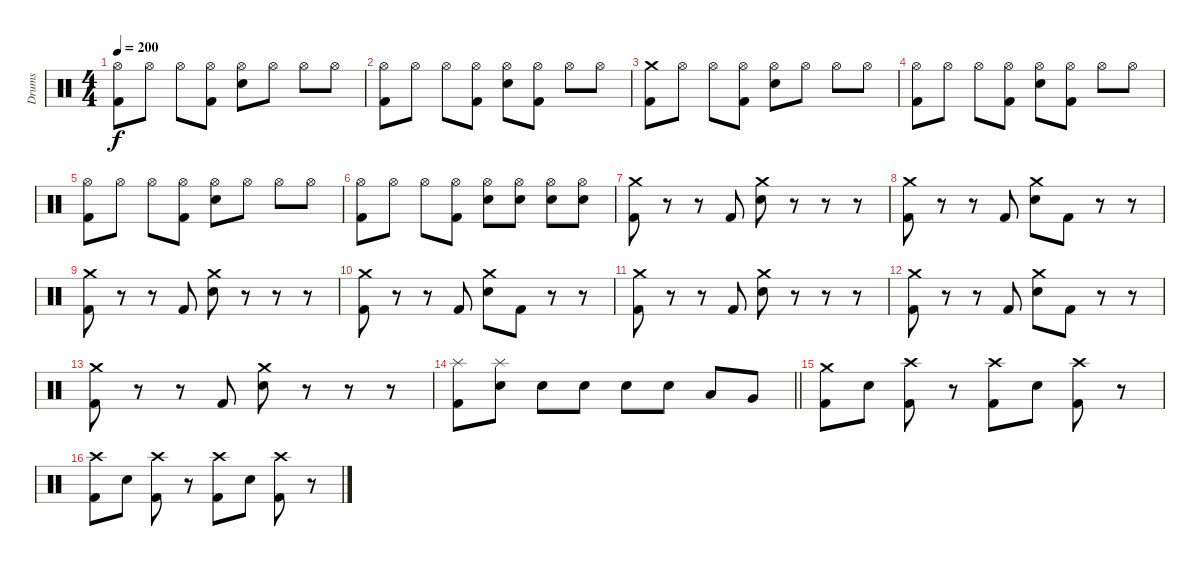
\track ("Drums" "Drums") {instrument percussion}
\staff {score}
\articulation defaults
\ts (4 4)
\tempo 200
\clef neutral
\ks c
("Hi-Hat (open)" "Kick (hit) 2").8{dy f} "Hi-Hat (open)".8 "Hi-Hat (open)".8 ("Hi-Hat (open)" "Kick (hit) 2").8 ("Hi-Hat (open)" "Electric Snare (hit)").8 "Hi-Hat (open)".8 "Hi-Hat (open)".8 "Hi-Hat (open)".8 |
("Hi-Hat (open)" "Kick (hit) 2").8 "Hi-Hat (open)".8 "Hi-Hat (open)".8 ("Hi-Hat (open)" "Kick (hit) 2").8 ("Hi-Hat (open)" "Electric Snare (hit)").8 ("Hi-Hat (open)" "Kick (hit) 2").8 "Hi-Hat (open)".8 "Hi-Hat (open)".8 |
("Crash medium (hit)" "Kick (hit) 2").8 "Hi-Hat (open)".8 "Hi-Hat (open)".8 ("Hi-Hat (open)" "Kick (hit) 2").8 ("Hi-Hat (open)" "Electric Snare (hit)").8 "Hi-Hat (open)".8 "Hi-Hat (open)".8 "Hi-Hat (open)".8 |
("Hi-Hat (open)" "Kick (hit) 2").8 "Hi-Hat (open)".8 "Hi-Hat (open)".8 ("Hi-Hat (open)" "Kick (hit) 2").8 ("Hi-Hat (open)" "Electric Snare (hit)").8 ("Hi-Hat (open)" "Kick (hit) 2").8 "Hi-Hat (open)".8 "Hi-Hat (open)".8 |
("Hi-Hat (open)" "Kick (hit) 2").8 "Hi-Hat (open)".8 "Hi-Hat (open)".8 ("Hi-Hat (open)" "Kick (hit) 2").8 ("Hi-Hat (open)" "Electric Snare (hit)").8 "Hi-Hat (open)".8 "Hi-Hat (open)".8 "Hi-Hat (open)".8 |
("Hi-Hat (open)" "Kick (hit) 2").8 "Hi-Hat (open)".8 "Hi-Hat (open)".8 ("Hi-Hat (open)" "Kick (hit) 2").8 ("Hi-Hat (open)" "Electric Snare (hit)").8 ("Hi-Hat (open)" "Electric Snare (hit)").8 ("Hi-Hat (open)" "Electric Snare (hit)").8 ("Hi-Hat (open)" "Electric Snare (hit)").8 |
("Crash medium (hit)" "Kick (hit) 2").8 r.8 r.8 "Kick (hit) 2".8 ("Crash medium (hit)" "Electric Snare (hit)").8 r.8 r.8 r.8 |
("Crash medium (hit)" "Kick (hit) 2").8 r.8 r.8 "Kick (hit) 2".8 ("Crash medium (hit)" "Electric Snare (hit)").8 "Kick (hit) 2".8 r.8 r.8 |
("Crash medium (hit)" "Kick (hit) 2").8 r.8 r.8 "Kick (hit) 2".8 ("Crash medium (hit)" "Electric Snare (hit)").8 r.8 r.8 r.8 |
("Crash medium (hit)" "Kick (hit) 2").8 r.8 r.8 "Kick (hit) 2".8 ("Crash medium (hit)" "Electric Snare (hit)").8 "Kick (hit) 2".8 r.8 r.8 |
("Crash medium (hit)" "Kick (hit) 2").8 r.8 r.8 "Kick (hit) 2".8 ("Crash medium (hit)" "Electric Snare (hit)").8 r.8 r.8 r.8 |
("Crash medium (hit)" "Kick (hit) 2").8 r.8 r.8 "Kick (hit) 2".8 ("Crash medium (hit)" "Electric Snare (hit)").8 "Kick (hit) 2".8 r.8 r.8 |
("Crash medium (hit)" "Kick (hit) 2").8 r.8 r.8 "Kick (hit) 2".8 ("Crash medium (hit)" "Electric Snare (hit)").8 r.8 r.8 r.8 |
\barLineRight lightlight
("Splash (hit)" "Kick (hit) 2").8 ("Splash (hit)" "Electric Snare (hit)").8 "Electric Snare (hit)".8 "Electric Snare (hit)".8 "Electric Snare (hit)".8 "Electric Snare (hit)".8 "Low Tom (hit)".8 "Very Low Tom (hit)".8 |
("Crash medium (hit)" "Kick (hit) 2").8 "Electric Snare (hit)".8 ("Crash high (hit)" "Kick (hit) 2").8 r.8 ("Crash high (hit)" "Kick (hit) 2").8 "Electric Snare (hit)".8 ("Crash high (hit)" "Kick (hit) 2").8 r.8 |
("Crash high (hit)" "Kick (hit) 2").8 "Electric Snare (hit)".8 ("Crash high (hit)" "Kick (hit) 2").8 r.8 ("Crash high (hit)" "Kick (hit) 2").8 "Electric Snare (hit)".8 ("Crash high (hit)" "Kick (hit) 2").8 r.8
